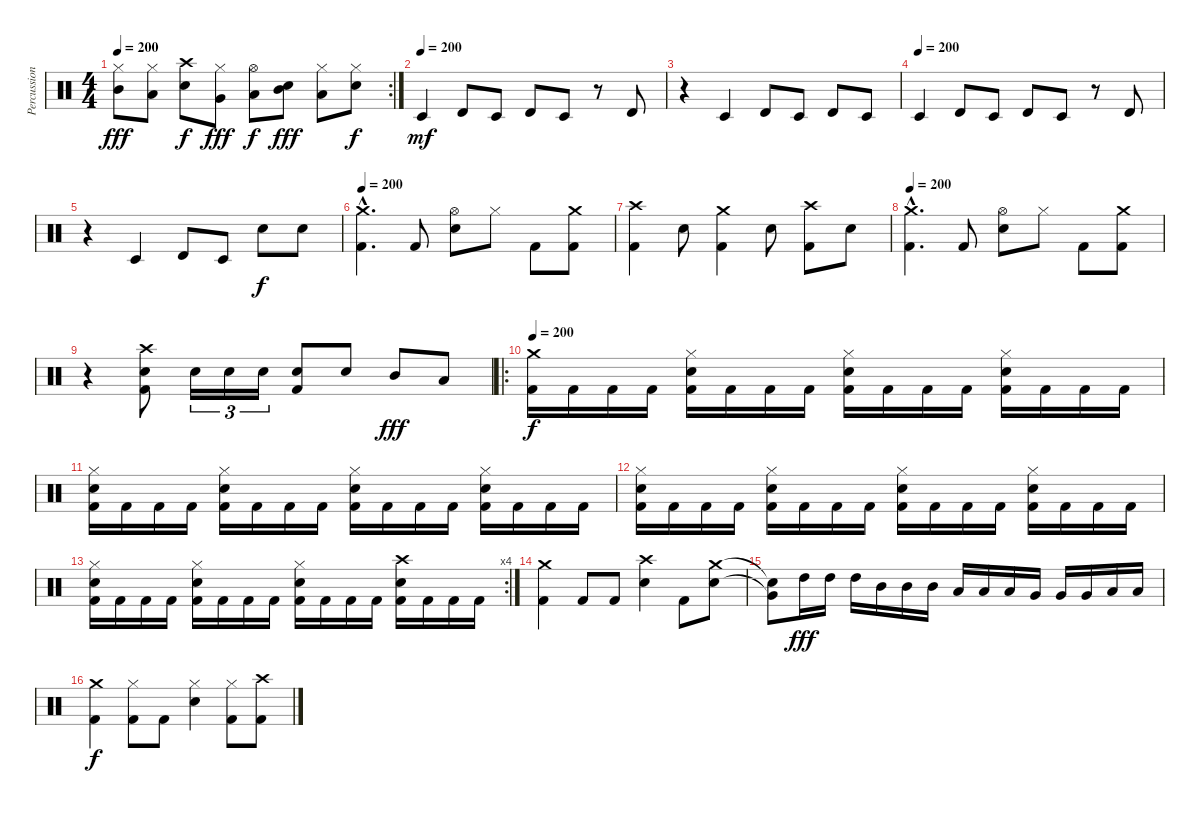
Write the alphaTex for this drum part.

\track ("Percussions" "Percussion") {instrument percussion}
\staff {score}
\articulation defaults
\rc 2
\ts (4 4)
\tempo 200
\clef neutral
\ks c
("Hi-Hat (closed)" "Mid Tom (hit)").8{dy fff} ("Hi-Hat (closed)" "Low Tom (hit)").8 ("Crash high (hit)" "Electric Snare (hit)").8{dy f} ("Hi-Hat (closed)" "Very Low Tom (hit)").8{dy fff} ("Hi-Hat (open)" "Low Tom (hit)").8{dy f} ("Electric Snare (hit)" "Mid Tom (hit)").8{dy fff} ("Hi-Hat (closed)" "Low Tom (hit)").8 ("Hi-Hat (closed)" "Electric Snare (hit)").8{dy f} |
\tempo (200)
"Timbale low (hit)".4{dy mf} "Timbale high (hit)".8 "Timbale low (hit)".8 "Timbale high (hit)".8 "Timbale low (hit)".8 r.8 "Timbale high (hit)".8 |
r.4 "Timbale low (hit)".4 "Timbale high (hit)".8 "Timbale low (hit)".8 "Timbale high (hit)".8 "Timbale low (hit)".8 |
\tempo (200)
"Timbale low (hit)".4 "Timbale high (hit)".8 "Timbale low (hit)".8 "Timbale high (hit)".8 "Timbale low (hit)".8 r.8 "Timbale high (hit)".8 |
r.4 "Timbale low (hit)".4 "Timbale high (hit)".8 "Timbale low (hit)".8 "Electric Snare (hit)".8{dy f} "Electric Snare (hit)".8 |
\tempo 200
("Crash medium (hit)"{hac} "Kick (hit) 2"{hac}).4{d} "Kick (hit) 2".8 ("Hi-Hat (open)" "Electric Snare (hit)").8 "Hi-Hat (closed)".8 "Kick (hit) 2".8 ("Crash medium (hit)" "Kick (hit) 2").8 |
("Crash high (hit)" "Kick (hit) 2").4 "Electric Snare (hit)".8 ("Crash medium (hit)" "Kick (hit) 2").4 "Electric Snare (hit)".8 ("Crash high (hit)" "Kick (hit) 2").8 "Electric Snare (hit)".8 |
\tempo 200
("Crash medium (hit)"{hac} "Kick (hit) 2"{hac}).4{d} "Kick (hit) 2".8 ("Hi-Hat (open)" "Electric Snare (hit)").8 "Hi-Hat (closed)".8 "Kick (hit) 2".8 ("Crash medium (hit)" "Kick (hit) 2").8 |
r.4 ("Crash high (hit)" "Electric Snare (hit)" "Kick (hit) 2").8 "Electric Snare (hit)".16{tu (3 2)} "Electric Snare (hit)".16{tu (3 2)} "Electric Snare (hit)".16{tu (3 2)} ("Electric Snare (hit)" "Kick (hit) 2").8 "Electric Snare (hit)".8 "Mid Tom (hit)".8{dy fff} "Low Tom (hit)".8 |
\ro
\tempo 200
("Crash medium (hit)" "Kick (hit) 2").16{dy f} "Kick (hit) 2".16 "Kick (hit) 2".16 "Kick (hit) 2".16 ("Hi-Hat (closed)" "Electric Snare (hit)" "Kick (hit) 2").16 "Kick (hit) 2".16 "Kick (hit) 2".16 "Kick (hit) 2".16 ("Hi-Hat (closed)" "Electric Snare (hit)" "Kick (hit) 2").16 "Kick (hit) 2".16 "Kick (hit) 2".16 "Kick (hit) 2".16 ("Hi-Hat (closed)" "Electric Snare (hit)" "Kick (hit) 2").16 "Kick (hit) 2".16 "Kick (hit) 2".16 "Kick (hit) 2".16 |
("Hi-Hat (closed)" "Electric Snare (hit)" "Kick (hit) 2").16 "Kick (hit) 2".16 "Kick (hit) 2".16 "Kick (hit) 2".16 ("Hi-Hat (closed)" "Electric Snare (hit)" "Kick (hit) 2").16 "Kick (hit) 2".16 "Kick (hit) 2".16 "Kick (hit) 2".16 ("Hi-Hat (closed)" "Electric Snare (hit)" "Kick (hit) 2").16 "Kick (hit) 2".16 "Kick (hit) 2".16 "Kick (hit) 2".16 ("Hi-Hat (closed)" "Electric Snare (hit)" "Kick (hit) 2").16 "Kick (hit) 2".16 "Kick (hit) 2".16 "Kick (hit) 2".16 |
("Hi-Hat (closed)" "Electric Snare (hit)" "Kick (hit) 2").16 "Kick (hit) 2".16 "Kick (hit) 2".16 "Kick (hit) 2".16 ("Hi-Hat (closed)" "Electric Snare (hit)" "Kick (hit) 2").16 "Kick (hit) 2".16 "Kick (hit) 2".16 "Kick (hit) 2".16 ("Hi-Hat (closed)" "Electric Snare (hit)" "Kick (hit) 2").16 "Kick (hit) 2".16 "Kick (hit) 2".16 "Kick (hit) 2".16 ("Hi-Hat (closed)" "Electric Snare (hit)" "Kick (hit) 2").16 "Kick (hit) 2".16 "Kick (hit) 2".16 "Kick (hit) 2".16 |
\rc 4
("Hi-Hat (closed)" "Electric Snare (hit)" "Kick (hit) 2").16 "Kick (hit) 2".16 "Kick (hit) 2".16 "Kick (hit) 2".16 ("Hi-Hat (closed)" "Electric Snare (hit)" "Kick (hit) 2").16 "Kick (hit) 2".16 "Kick (hit) 2".16 "Kick (hit) 2".16 ("Hi-Hat (closed)" "Electric Snare (hit)" "Kick (hit) 2").16 "Kick (hit) 2".16 "Kick (hit) 2".16 "Kick (hit) 2".16 ("Crash high (hit)" "Electric Snare (hit)" "Kick (hit) 2").16 "Kick (hit) 2".16 "Kick (hit) 2".16 "Kick (hit) 2".16 |
("Crash medium (hit)" "Kick (hit) 2").4 "Kick (hit) 2".8 "Kick (hit) 2".8 ("Crash high (hit)" "Electric Snare (hit)").4 "Kick (hit) 2".8 ("Crash medium (hit)" "Electric Snare (hit)").8 |
("Snare (hit)"{t} "Very Low Tom (hit)"{t}).8 "High Tom (hit)".16{dy fff} "High Tom (hit)".16 "High Tom (hit)".16 "Mid Tom (hit)".16 "Mid Tom (hit)".16 "Mid Tom (hit)".16 "Low Tom (hit)".16 "Low Tom (hit)".16 "Low Tom (hit)".16 "Very Low Tom (hit)".16 "Very Low Tom (hit)".16 "Very Low Tom (hit)".16 "Low Floor Tom (hit)".16 "Low Floor Tom (hit)".16 |
("Crash medium (hit)" "Kick (hit) 2").4{dy f} ("Hi-Hat (closed)" "Kick (hit) 2").8 "Kick (hit) 2".8 ("Hi-Hat (closed)" "Electric Snare (hit)").4 ("Hi-Hat (closed)" "Kick (hit) 2").8 ("Crash high (hit)" "Kick (hit) 2").8
